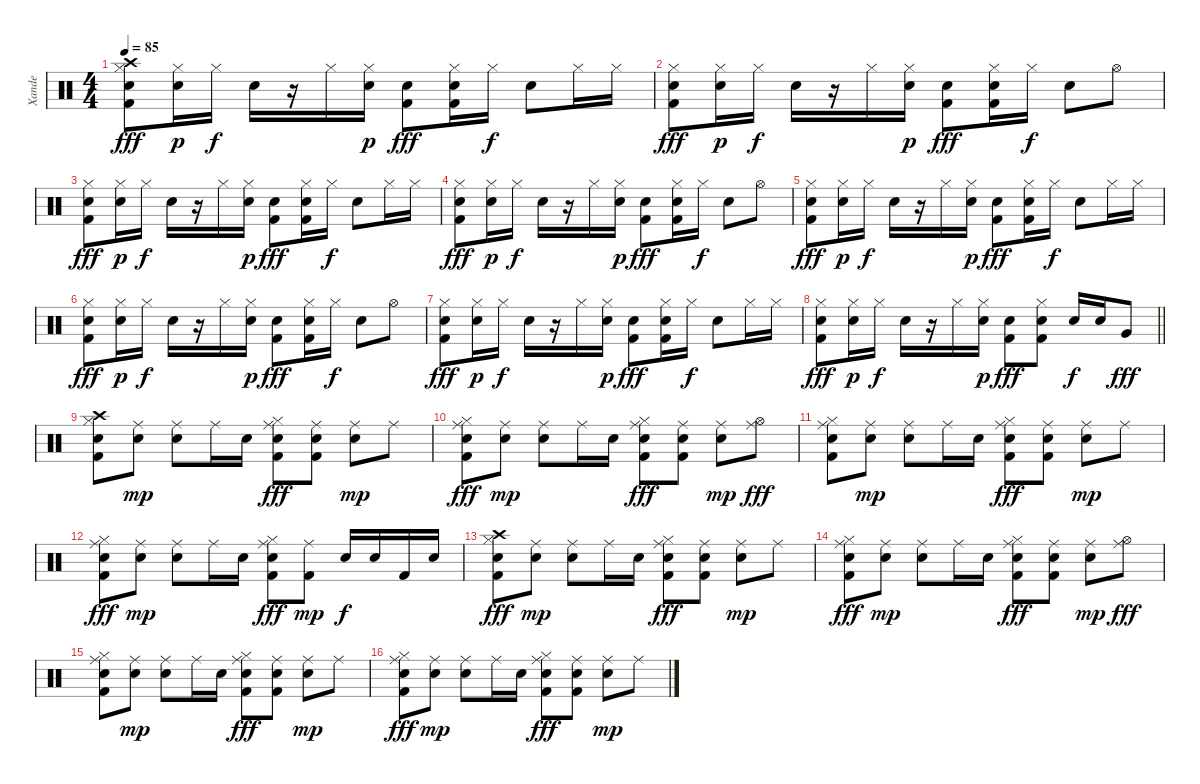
\track ("Xande" "Xande") {instrument percussion}
\staff {score}
\articulation defaults
\ts (4 4)
\tempo 85
\clef neutral
\ks c
("Crash high (hit)" "Hi-Hat (closed)" "Snare (hit) 2" "Kick (hit) 2").8{dy fff} ("Hi-Hat (closed)" "Snare (hit) 2").16{dy p} "Hi-Hat (closed)".16{dy f} "Electric Snare (hit)".16 r.16 "Hi-Hat (closed)".16 ("Hi-Hat (closed)" "Snare (hit) 2").16{dy p} ("Snare (hit) 2" "Kick (hit) 2").8{dy fff} ("Hi-Hat (closed)" "Snare (hit) 2" "Kick (hit) 2").16 "Hi-Hat (closed)".16{dy f} "Electric Snare (hit)".8 "Hi-Hat (closed)".16 "Hi-Hat (closed)".16 |
("Hi-Hat (closed)" "Snare (hit) 2" "Kick (hit) 2").8{dy fff} ("Hi-Hat (closed)" "Snare (hit) 2").16{dy p} "Hi-Hat (closed)".16{dy f} "Electric Snare (hit)".16 r.16 "Hi-Hat (closed)".16 ("Hi-Hat (closed)" "Snare (hit) 2").16{dy p} ("Snare (hit) 2" "Kick (hit) 2").8{dy fff} ("Hi-Hat (closed)" "Snare (hit) 2" "Kick (hit) 2").16 "Hi-Hat (closed)".16{dy f} "Electric Snare (hit)".8 "Hi-Hat (open)".8 |
("Hi-Hat (closed)" "Snare (hit) 2" "Kick (hit) 2").8{dy fff} ("Hi-Hat (closed)" "Snare (hit) 2").16{dy p} "Hi-Hat (closed)".16{dy f} "Electric Snare (hit)".16 r.16 "Hi-Hat (closed)".16 ("Hi-Hat (closed)" "Snare (hit) 2").16{dy p} ("Snare (hit) 2" "Kick (hit) 2").8{dy fff} ("Hi-Hat (closed)" "Snare (hit) 2" "Kick (hit) 2").16 "Hi-Hat (closed)".16{dy f} "Electric Snare (hit)".8 "Hi-Hat (closed)".16 "Hi-Hat (closed)".16 |
("Hi-Hat (closed)" "Snare (hit) 2" "Kick (hit) 2").8{dy fff} ("Hi-Hat (closed)" "Snare (hit) 2").16{dy p} "Hi-Hat (closed)".16{dy f} "Electric Snare (hit)".16 r.16 "Hi-Hat (closed)".16 ("Hi-Hat (closed)" "Snare (hit) 2").16{dy p} ("Snare (hit) 2" "Kick (hit) 2").8{dy fff} ("Hi-Hat (closed)" "Snare (hit) 2" "Kick (hit) 2").16 "Hi-Hat (closed)".16{dy f} "Electric Snare (hit)".8 "Hi-Hat (open)".8 |
("Hi-Hat (closed)" "Snare (hit) 2" "Kick (hit) 2").8{dy fff} ("Hi-Hat (closed)" "Snare (hit) 2").16{dy p} "Hi-Hat (closed)".16{dy f} "Electric Snare (hit)".16 r.16 "Hi-Hat (closed)".16 ("Hi-Hat (closed)" "Snare (hit) 2").16{dy p} ("Snare (hit) 2" "Kick (hit) 2").8{dy fff} ("Hi-Hat (closed)" "Snare (hit) 2" "Kick (hit) 2").16 "Hi-Hat (closed)".16{dy f} "Electric Snare (hit)".8 "Hi-Hat (closed)".16 "Hi-Hat (closed)".16 |
("Hi-Hat (closed)" "Snare (hit) 2" "Kick (hit) 2").8{dy fff} ("Hi-Hat (closed)" "Snare (hit) 2").16{dy p} "Hi-Hat (closed)".16{dy f} "Electric Snare (hit)".16 r.16 "Hi-Hat (closed)".16 ("Hi-Hat (closed)" "Snare (hit) 2").16{dy p} ("Snare (hit) 2" "Kick (hit) 2").8{dy fff} ("Hi-Hat (closed)" "Snare (hit) 2" "Kick (hit) 2").16 "Hi-Hat (closed)".16{dy f} "Electric Snare (hit)".8 "Hi-Hat (open)".8 |
("Hi-Hat (closed)" "Snare (hit) 2" "Kick (hit) 2").8{dy fff} ("Hi-Hat (closed)" "Snare (hit) 2").16{dy p} "Hi-Hat (closed)".16{dy f} "Electric Snare (hit)".16 r.16 "Hi-Hat (closed)".16 ("Hi-Hat (closed)" "Snare (hit) 2").16{dy p} ("Snare (hit) 2" "Kick (hit) 2").8{dy fff} ("Hi-Hat (closed)" "Snare (hit) 2" "Kick (hit) 2").16 "Hi-Hat (closed)".16{dy f} "Electric Snare (hit)".8 "Hi-Hat (closed)".16 "Hi-Hat (closed)".16 |
\barLineRight lightlight
("Hi-Hat (closed)" "Snare (hit) 2" "Kick (hit) 2").8{dy fff} ("Hi-Hat (closed)" "Snare (hit) 2").16{dy p} "Hi-Hat (closed)".16{dy f} "Electric Snare (hit)".16 r.16 "Hi-Hat (closed)".16 ("Hi-Hat (closed)" "Snare (hit) 2").16{dy p} ("Snare (hit) 2" "Kick (hit) 2").8{dy fff} ("Hi-Hat (closed)" "Snare (hit) 2" "Kick (hit) 2").8 "Electric Snare (hit)".16{dy f} "Electric Snare (hit)".16 "Very Low Tom (hit)".8{dy fff} |
("Crash high (hit)" "Hi-Hat (closed)" "Snare (hit) 2" "Kick (hit) 2").8 ("Ride (middle)" "Snare (hit) 2").8{dy mp} ("Ride (middle)" "Electric Snare (hit)").8 "Ride (middle)".16 "Snare (hit) 2".16 ("Ride (middle)" "Hi-Hat (closed)" "Snare (hit) 2" "Kick (hit) 2").8{dy fff} ("Ride (middle)" "Snare (hit) 2" "Kick (hit) 2").8 ("Ride (middle)" "Electric Snare (hit)").8{dy mp} "Ride (middle)".8 |
("Ride (middle)" "Hi-Hat (closed)" "Snare (hit) 2" "Kick (hit) 2").8{dy fff} ("Ride (middle)" "Snare (hit) 2").8{dy mp} ("Ride (middle)" "Electric Snare (hit)").8 "Ride (middle)".16 "Snare (hit) 2".16 ("Ride (middle)" "Hi-Hat (closed)" "Snare (hit) 2" "Kick (hit) 2").8{dy fff} ("Ride (middle)" "Snare (hit) 2" "Kick (hit) 2").8 ("Ride (middle)" "Electric Snare (hit)").8{dy mp} ("Ride (middle)" "Hi-Hat (open)").8{dy fff} |
("Ride (middle)" "Hi-Hat (closed)" "Snare (hit) 2" "Kick (hit) 2").8 ("Ride (middle)" "Snare (hit) 2").8{dy mp} ("Ride (middle)" "Electric Snare (hit)").8 "Ride (middle)".16 "Snare (hit) 2".16 ("Ride (middle)" "Hi-Hat (closed)" "Snare (hit) 2" "Kick (hit) 2").8{dy fff} ("Ride (middle)" "Snare (hit) 2" "Kick (hit) 2").8 ("Ride (middle)" "Electric Snare (hit)").8{dy mp} "Ride (middle)".8 |
("Ride (middle)" "Hi-Hat (closed)" "Snare (hit) 2" "Kick (hit) 2").8{dy fff} ("Ride (middle)" "Snare (hit) 2").8{dy mp} ("Ride (middle)" "Electric Snare (hit)").8 "Ride (middle)".16 "Snare (hit) 2".16 ("Ride (middle)" "Hi-Hat (closed)" "Snare (hit) 2" "Kick (hit) 2").8{dy fff} ("Ride (middle)" "Kick (hit) 2").8{dy mp} "Electric Snare (hit)".16{dy f} "Electric Snare (hit)".16 "Kick (hit) 2".16 "Electric Snare (hit)".16 |
("Crash high (hit)" "Hi-Hat (closed)" "Snare (hit) 2" "Kick (hit) 2").8{dy fff} ("Ride (middle)" "Snare (hit) 2").8{dy mp} ("Ride (middle)" "Electric Snare (hit)").8 "Ride (middle)".16 "Snare (hit) 2".16 ("Ride (middle)" "Hi-Hat (closed)" "Snare (hit) 2" "Kick (hit) 2").8{dy fff} ("Ride (middle)" "Snare (hit) 2" "Kick (hit) 2").8 ("Ride (middle)" "Electric Snare (hit)").8{dy mp} "Ride (middle)".8 |
("Ride (middle)" "Hi-Hat (closed)" "Snare (hit) 2" "Kick (hit) 2").8{dy fff} ("Ride (middle)" "Snare (hit) 2").8{dy mp} ("Ride (middle)" "Electric Snare (hit)").8 "Ride (middle)".16 "Snare (hit) 2".16 ("Ride (middle)" "Hi-Hat (closed)" "Snare (hit) 2" "Kick (hit) 2").8{dy fff} ("Ride (middle)" "Snare (hit) 2" "Kick (hit) 2").8 ("Ride (middle)" "Electric Snare (hit)").8{dy mp} ("Ride (middle)" "Hi-Hat (open)").8{dy fff} |
("Ride (middle)" "Hi-Hat (closed)" "Snare (hit) 2" "Kick (hit) 2").8 ("Ride (middle)" "Snare (hit) 2").8{dy mp} ("Ride (middle)" "Electric Snare (hit)").8 "Ride (middle)".16 "Snare (hit) 2".16 ("Ride (middle)" "Hi-Hat (closed)" "Snare (hit) 2" "Kick (hit) 2").8{dy fff} ("Ride (middle)" "Snare (hit) 2" "Kick (hit) 2").8 ("Ride (middle)" "Electric Snare (hit)").8{dy mp} "Ride (middle)".8 |
("Ride (middle)" "Hi-Hat (closed)" "Snare (hit) 2" "Kick (hit) 2").8{dy fff} ("Ride (middle)" "Snare (hit) 2").8{dy mp} ("Ride (middle)" "Electric Snare (hit)").8 "Ride (middle)".16 "Snare (hit) 2".16 ("Ride (middle)" "Hi-Hat (closed)" "Snare (hit) 2" "Kick (hit) 2").8{dy fff} ("Ride (middle)" "Snare (hit) 2" "Kick (hit) 2").8 ("Ride (middle)" "Electric Snare (hit)").8{dy mp} "Ride (middle)".8
